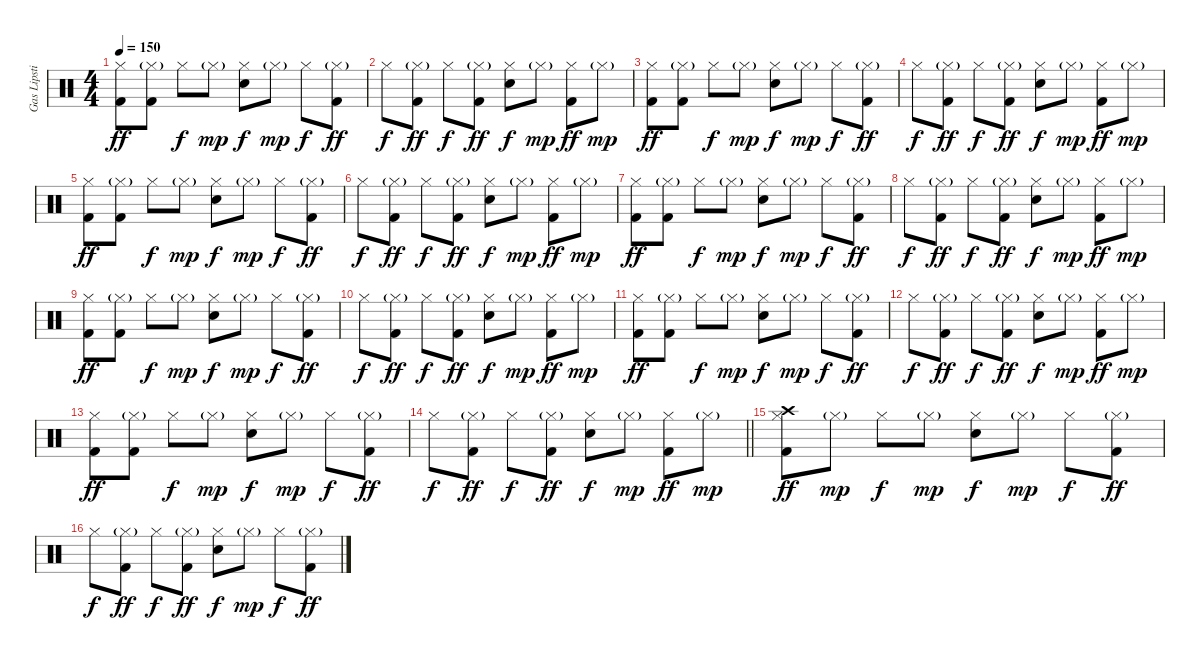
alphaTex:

\track ("Gas Lipstick" "Gas Lipsti") {instrument percussion}
\staff {score}
\articulation defaults
\ts (4 4)
\tempo 150
\clef neutral
\ks c
("Hi-Hat (closed)" "Kick (hit) 2").8{dy ff} ("Hi-Hat (closed)"{g} "Kick (hit) 2").8 "Hi-Hat (closed)".8{dy f} "Hi-Hat (closed)"{g}.8{dy mp} ("Hi-Hat (closed)" "Snare (hit) 2").8{dy f} "Hi-Hat (closed)"{g}.8{dy mp} "Hi-Hat (closed)".8{dy f} ("Hi-Hat (closed)"{g} "Kick (hit) 2").8{dy ff} |
"Hi-Hat (closed)".8{dy f} ("Hi-Hat (closed)"{g} "Kick (hit) 2").8{dy ff} "Hi-Hat (closed)".8{dy f} ("Hi-Hat (closed)"{g} "Kick (hit) 2").8{dy ff} ("Hi-Hat (closed)" "Snare (hit) 2").8{dy f} "Hi-Hat (closed)"{g}.8{dy mp} ("Hi-Hat (closed)" "Kick (hit) 2").8{dy ff} "Hi-Hat (closed)"{g}.8{dy mp} |
("Hi-Hat (closed)" "Kick (hit) 2").8{dy ff} ("Hi-Hat (closed)"{g} "Kick (hit) 2").8 "Hi-Hat (closed)".8{dy f} "Hi-Hat (closed)"{g}.8{dy mp} ("Hi-Hat (closed)" "Snare (hit) 2").8{dy f} "Hi-Hat (closed)"{g}.8{dy mp} "Hi-Hat (closed)".8{dy f} ("Hi-Hat (closed)"{g} "Kick (hit) 2").8{dy ff} |
"Hi-Hat (closed)".8{dy f} ("Hi-Hat (closed)"{g} "Kick (hit) 2").8{dy ff} "Hi-Hat (closed)".8{dy f} ("Hi-Hat (closed)"{g} "Kick (hit) 2").8{dy ff} ("Hi-Hat (closed)" "Snare (hit) 2").8{dy f} "Hi-Hat (closed)"{g}.8{dy mp} ("Hi-Hat (closed)" "Kick (hit) 2").8{dy ff} "Hi-Hat (closed)"{g}.8{dy mp} |
("Hi-Hat (closed)" "Kick (hit) 2").8{dy ff} ("Hi-Hat (closed)"{g} "Kick (hit) 2").8 "Hi-Hat (closed)".8{dy f} "Hi-Hat (closed)"{g}.8{dy mp} ("Hi-Hat (closed)" "Snare (hit) 2").8{dy f} "Hi-Hat (closed)"{g}.8{dy mp} "Hi-Hat (closed)".8{dy f} ("Hi-Hat (closed)"{g} "Kick (hit) 2").8{dy ff} |
"Hi-Hat (closed)".8{dy f} ("Hi-Hat (closed)"{g} "Kick (hit) 2").8{dy ff} "Hi-Hat (closed)".8{dy f} ("Hi-Hat (closed)"{g} "Kick (hit) 2").8{dy ff} ("Hi-Hat (closed)" "Snare (hit) 2").8{dy f} "Hi-Hat (closed)"{g}.8{dy mp} ("Hi-Hat (closed)" "Kick (hit) 2").8{dy ff} "Hi-Hat (closed)"{g}.8{dy mp} |
("Hi-Hat (closed)" "Kick (hit) 2").8{dy ff} ("Hi-Hat (closed)"{g} "Kick (hit) 2").8 "Hi-Hat (closed)".8{dy f} "Hi-Hat (closed)"{g}.8{dy mp} ("Hi-Hat (closed)" "Snare (hit) 2").8{dy f} "Hi-Hat (closed)"{g}.8{dy mp} "Hi-Hat (closed)".8{dy f} ("Hi-Hat (closed)"{g} "Kick (hit) 2").8{dy ff} |
"Hi-Hat (closed)".8{dy f} ("Hi-Hat (closed)"{g} "Kick (hit) 2").8{dy ff} "Hi-Hat (closed)".8{dy f} ("Hi-Hat (closed)"{g} "Kick (hit) 2").8{dy ff} ("Hi-Hat (closed)" "Snare (hit) 2").8{dy f} "Hi-Hat (closed)"{g}.8{dy mp} ("Hi-Hat (closed)" "Kick (hit) 2").8{dy ff} "Hi-Hat (closed)"{g}.8{dy mp} |
("Hi-Hat (closed)" "Kick (hit) 2").8{dy ff} ("Hi-Hat (closed)"{g} "Kick (hit) 2").8 "Hi-Hat (closed)".8{dy f} "Hi-Hat (closed)"{g}.8{dy mp} ("Hi-Hat (closed)" "Snare (hit) 2").8{dy f} "Hi-Hat (closed)"{g}.8{dy mp} "Hi-Hat (closed)".8{dy f} ("Hi-Hat (closed)"{g} "Kick (hit) 2").8{dy ff} |
"Hi-Hat (closed)".8{dy f} ("Hi-Hat (closed)"{g} "Kick (hit) 2").8{dy ff} "Hi-Hat (closed)".8{dy f} ("Hi-Hat (closed)"{g} "Kick (hit) 2").8{dy ff} ("Hi-Hat (closed)" "Snare (hit) 2").8{dy f} "Hi-Hat (closed)"{g}.8{dy mp} ("Hi-Hat (closed)" "Kick (hit) 2").8{dy ff} "Hi-Hat (closed)"{g}.8{dy mp} |
("Hi-Hat (closed)" "Kick (hit) 2").8{dy ff} ("Hi-Hat (closed)"{g} "Kick (hit) 2").8 "Hi-Hat (closed)".8{dy f} "Hi-Hat (closed)"{g}.8{dy mp} ("Hi-Hat (closed)" "Snare (hit) 2").8{dy f} "Hi-Hat (closed)"{g}.8{dy mp} "Hi-Hat (closed)".8{dy f} ("Hi-Hat (closed)"{g} "Kick (hit) 2").8{dy ff} |
"Hi-Hat (closed)".8{dy f} ("Hi-Hat (closed)"{g} "Kick (hit) 2").8{dy ff} "Hi-Hat (closed)".8{dy f} ("Hi-Hat (closed)"{g} "Kick (hit) 2").8{dy ff} ("Hi-Hat (closed)" "Snare (hit) 2").8{dy f} "Hi-Hat (closed)"{g}.8{dy mp} ("Hi-Hat (closed)" "Kick (hit) 2").8{dy ff} "Hi-Hat (closed)"{g}.8{dy mp} |
("Hi-Hat (closed)" "Kick (hit) 2").8{dy ff} ("Hi-Hat (closed)"{g} "Kick (hit) 2").8 "Hi-Hat (closed)".8{dy f} "Hi-Hat (closed)"{g}.8{dy mp} ("Hi-Hat (closed)" "Snare (hit) 2").8{dy f} "Hi-Hat (closed)"{g}.8{dy mp} "Hi-Hat (closed)".8{dy f} ("Hi-Hat (closed)"{g} "Kick (hit) 2").8{dy ff} |
\barLineRight lightlight "Hi-Hat (closed)".8{dy f}
("Hi-Hat (closed)"{g} "Kick (hit) 2").8{dy ff} "Hi-Hat (closed)".8{dy f} ("Hi-Hat (closed)"{g} "Kick (hit) 2").8{dy ff} ("Hi-Hat (closed)" "Snare (hit) 2").8{dy f} "Hi-Hat (closed)"{g}.8{dy mp} ("Hi-Hat (closed)" "Kick (hit) 2").8{dy ff} "Hi-Hat (closed)"{g}.8{dy mp} |
("Crash high (hit)" "Hi-Hat (closed)" "Kick (hit) 2").8{dy ff} "Hi-Hat (closed)"{g}.8{dy mp} "Hi-Hat (closed)".8{dy f} "Hi-Hat (closed)"{g}.8{dy mp} ("Hi-Hat (closed)" "Snare (hit) 2").8{dy f} "Hi-Hat (closed)"{g}.8{dy mp} "Hi-Hat (closed)".8{dy f} ("Hi-Hat (closed)"{g} "Kick (hit) 2").8{dy ff} |
"Hi-Hat (closed)".8{dy f} ("Hi-Hat (closed)"{g} "Kick (hit) 2").8{dy ff} "Hi-Hat (closed)".8{dy f} ("Hi-Hat (closed)"{g} "Kick (hit) 2").8{dy ff} ("Hi-Hat (closed)" "Snare (hit) 2").8{dy f} "Hi-Hat (closed)"{g}.8{dy mp} "Hi-Hat (closed)".8{dy f} ("Hi-Hat (closed)"{g} "Kick (hit) 2").8{dy ff}
